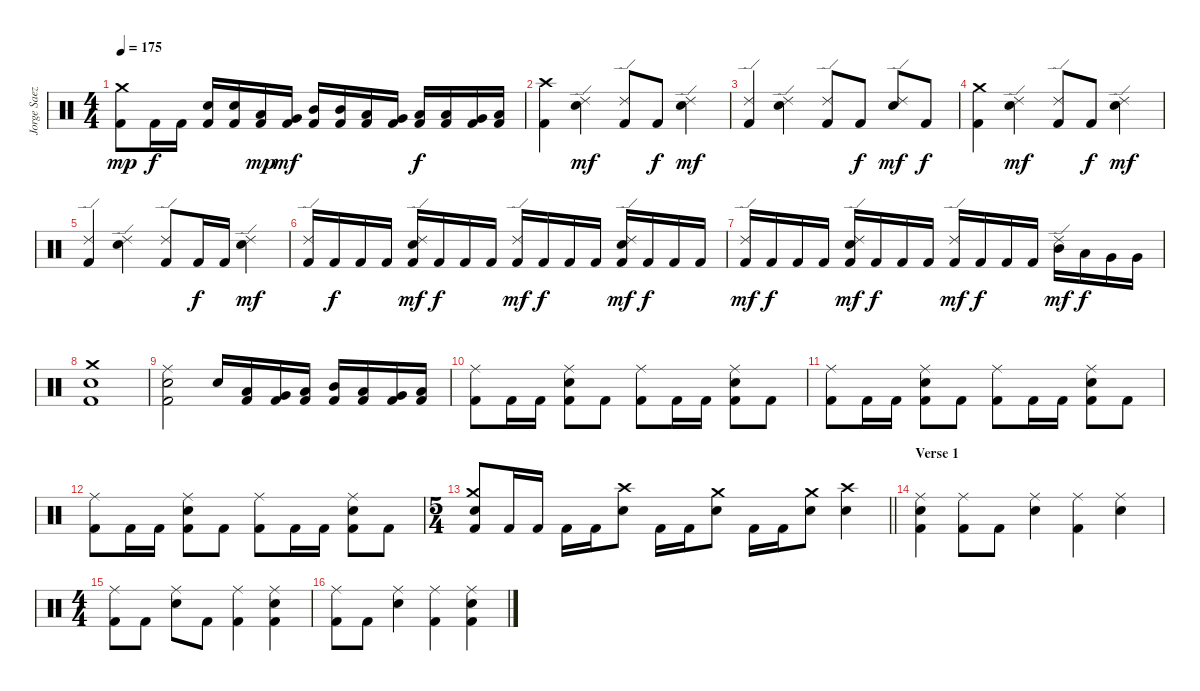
\track ("Jorge Saez, Drums" "Jorge Saez") {instrument percussion}
\staff
\articulation defaults
\ts (4 4)
\tempo 175
\clef neutral
\ks c
("Kick (hit) 2" "Crash medium (hit)").8{dy mp} "Kick (hit) 2".16{dy f} "Kick (hit) 2".16 ("Kick (hit) 2" "Electric Snare (hit)").16 ("Kick (hit) 2" "Electric Snare (hit)").16 ("Kick (hit) 2" "Low Tom (hit)").16{dy mp} ("Kick (hit) 2" "Very Low Tom (hit)").16{dy mf} ("Kick (hit) 2" "Mid Tom (hit)").16 ("Kick (hit) 2" "Mid Tom (hit)").16 ("Kick (hit) 2" "Low Tom (hit)").16 ("Kick (hit) 2" "Very Low Tom (hit)").16 ("Kick (hit) 2" "Low Tom (hit)").16{dy f} ("Kick (hit) 2" "Low Tom (hit)").16 ("Kick (hit) 2" "Very Low Tom (hit)").16 ("Kick (hit) 2" "Low Floor Tom (hit)").16 |
("Kick (hit) 2" "Crash high (hit)").4 ("Electric Snare (hit)" "Ride (edge) 2").4{dy mf} ("Kick (hit) 2" "Ride (edge) 2").8 "Kick (hit) 2".8{dy f} ("Electric Snare (hit)" "Ride (edge) 2").4{dy mf} |
("Kick (hit) 2" "Ride (edge) 2").4 ("Electric Snare (hit)" "Ride (edge) 2").4 ("Kick (hit) 2" "Ride (edge) 2").8 "Kick (hit) 2".8{dy f} ("Electric Snare (hit)" "Ride (edge) 2").8{dy mf} "Kick (hit) 2".8{dy f} |
("Kick (hit) 2" "Crash medium (hit)").4 ("Electric Snare (hit)" "Ride (edge) 2").4{dy mf} ("Kick (hit) 2" "Ride (edge) 2").8 "Kick (hit) 2".8{dy f} ("Electric Snare (hit)" "Ride (edge) 2").4{dy mf} |
("Kick (hit) 2" "Ride (edge) 2").4 ("Electric Snare (hit)" "Ride (edge) 2").4 ("Kick (hit) 2" "Ride (edge) 2").8 "Kick (hit) 2".16{dy f} "Kick (hit) 2".16 ("Electric Snare (hit)" "Ride (edge) 2").4{dy mf} |
("Kick (hit) 2" "Ride (edge) 2").16 "Kick (hit) 2".16{dy f} "Kick (hit) 2".16 "Kick (hit) 2".16 ("Kick (hit) 2" "Electric Snare (hit)" "Ride (edge) 2").16{dy mf} "Kick (hit) 2".16{dy f} "Kick (hit) 2".16 "Kick (hit) 2".16 ("Kick (hit) 2" "Ride (edge) 2").16{dy mf} "Kick (hit) 2".16{dy f} "Kick (hit) 2".16 "Kick (hit) 2".16 ("Kick (hit) 2" "Electric Snare (hit)" "Ride (edge) 2").16{dy mf} "Kick (hit) 2".16{dy f} "Kick (hit) 2".16 "Kick (hit) 2".16 |
("Kick (hit) 2" "Ride (edge) 2").16{dy mf} "Kick (hit) 2".16{dy f} "Kick (hit) 2".16 "Kick (hit) 2".16 ("Kick (hit) 2" "Electric Snare (hit)" "Ride (edge) 2").16{dy mf} "Kick (hit) 2".16{dy f} "Kick (hit) 2".16 "Kick (hit) 2".16 ("Kick (hit) 2" "Ride (edge) 2").16{dy mf} "Kick (hit) 2".16{dy f} "Kick (hit) 2".16 "Kick (hit) 2".16 ("Mid Tom (hit)" "Ride (edge) 2").16{dy mf} "Low Tom (hit)".16{dy f} "Very Low Tom (hit)".16 "Very Low Tom (hit)".16 |
("Kick (hit) 2" "Electric Snare (hit)" "Crash medium (hit)").1 |
("Kick (hit) 2" "Electric Snare (hit)" "Ride (middle)").2 "Electric Snare (hit)".16 ("Kick (hit) 2" "Low Tom (hit)").16 ("Kick (hit) 2" "Very Low Tom (hit)").16 ("Kick (hit) 2" "Low Floor Tom (hit)").16 ("Kick (hit) 2" "Mid Tom (hit)").16 ("Kick (hit) 2" "Low Tom (hit)").16 ("Kick (hit) 2" "Very Low Tom (hit)").16 ("Kick (hit) 2" "Low Floor Tom (hit)").16 |
("Kick (hit) 2" "Ride (middle)").8 "Kick (hit) 2".16 "Kick (hit) 2".16 ("Kick (hit) 2" "Electric Snare (hit)" "Ride (middle)").8 "Kick (hit) 2".8 ("Kick (hit) 2" "Ride (middle)").8 "Kick (hit) 2".16 "Kick (hit) 2".16 ("Kick (hit) 2" "Electric Snare (hit)" "Ride (middle)").8 "Kick (hit) 2".8 |
("Kick (hit) 2" "Ride (middle)").8 "Kick (hit) 2".16 "Kick (hit) 2".16 ("Kick (hit) 2" "Electric Snare (hit)" "Ride (middle)").8 "Kick (hit) 2".8 ("Kick (hit) 2" "Ride (middle)").8 "Kick (hit) 2".16 "Kick (hit) 2".16 ("Kick (hit) 2" "Electric Snare (hit)" "Ride (middle)").8 "Kick (hit) 2".8 |
("Kick (hit) 2" "Ride (middle)").8 "Kick (hit) 2".16 "Kick (hit) 2".16 ("Kick (hit) 2" "Electric Snare (hit)" "Ride (middle)").8 "Kick (hit) 2".8 ("Kick (hit) 2" "Ride (middle)").8 "Kick (hit) 2".16 "Kick (hit) 2".16 ("Kick (hit) 2" "Electric Snare (hit)" "Ride (middle)").8 "Kick (hit) 2".8 |
\ts (5 4)
\barLineRight lightlight
("Kick (hit) 2" "Electric Snare (hit)" "Crash medium (hit)").8 "Kick (hit) 2".16 "Kick (hit) 2".16 "Kick (hit) 2".16 "Kick (hit) 2".16 ("Electric Snare (hit)" "Crash high (hit)").8 "Kick (hit) 2".16 "Kick (hit) 2".16 ("Electric Snare (hit)" "Crash medium (hit)").8 "Kick (hit) 2".16 "Kick (hit) 2".16 ("Electric Snare (hit)" "Crash medium (hit)").8 ("Electric Snare (hit)" "Crash high (hit)").4 |
\section ("" "Verse 1")
("Kick (hit) 2" "Electric Snare (hit)" "Ride (middle)").4 ("Kick (hit) 2" "Ride (middle)").8 "Kick (hit) 2".8 ("Electric Snare (hit)" "Ride (middle)").4 ("Kick (hit) 2" "Ride (middle)").4 ("Electric Snare (hit)" "Ride (middle)").4 |
\ts (4 4)
("Kick (hit) 2" "Ride (middle)").8 "Kick (hit) 2".8 ("Electric Snare (hit)" "Ride (middle)").8 "Kick (hit) 2".8 ("Kick (hit) 2" "Ride (middle)").4 ("Kick (hit) 2" "Electric Snare (hit)" "Ride (middle)").4 |
("Kick (hit) 2" "Ride (middle)").8 "Kick (hit) 2".8 ("Electric Snare (hit)" "Ride (middle)").4 ("Kick (hit) 2" "Ride (middle)").4 ("Kick (hit) 2" "Electric Snare (hit)" "Ride (middle)").4
